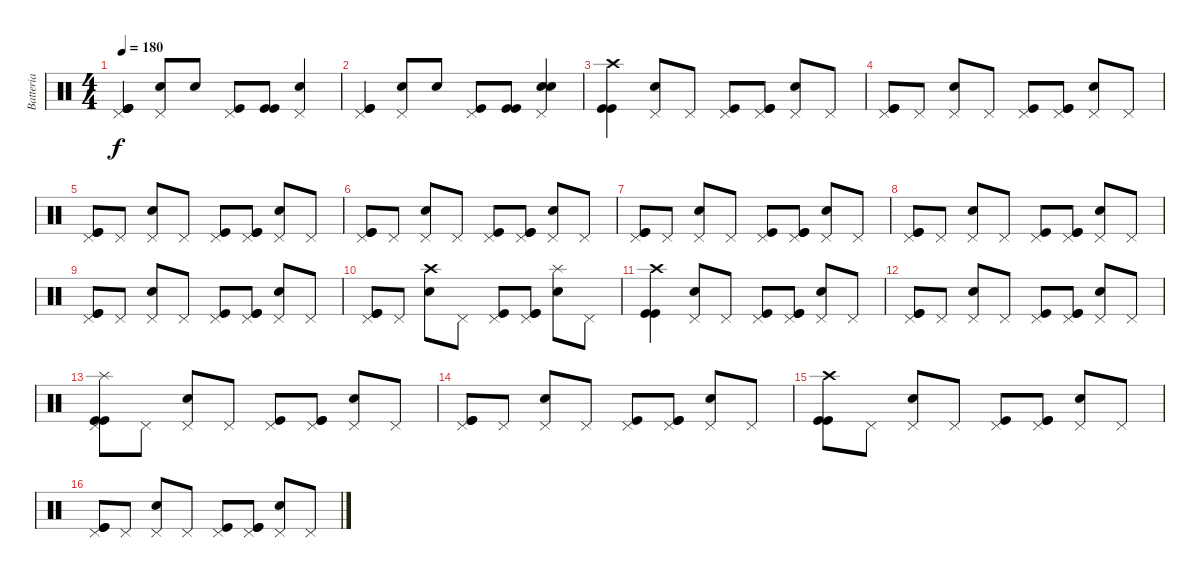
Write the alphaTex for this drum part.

\track ("Batteria" "Batteria") {instrument percussion}
\staff {score}
\articulation defaults
\ts (4 4)
\tempo 180
\clef neutral
\ks c
("Kick (hit)" "Pedal Hi-Hat (hit)" "Kick (hit)" "Kick (hit)").4{dy f} ("Electric Snare (hit)" "Pedal Hi-Hat (hit)").8 "Electric Snare (hit)".8 ("Kick (hit)" "Pedal Hi-Hat (hit)").8 ("Kick (hit)" "Kick (hit)").8 ("Electric Snare (hit)" "Pedal Hi-Hat (hit)").4 |
("Pedal Hi-Hat (hit)" "Kick (hit)" "Kick (hit)").4 ("Electric Snare (hit)" "Pedal Hi-Hat (hit)").8 "Electric Snare (hit)".8 ("Kick (hit)" "Pedal Hi-Hat (hit)").8 ("Kick (hit)" "Kick (hit)").8 ("Pedal Hi-Hat (hit)" "Snare (hit) 2" "Snare (hit) 2").4 |
("Kick (hit)" "Kick (hit)" "Crash high (hit)").4 ("Snare (hit) 2" "Pedal Hi-Hat (hit)").8 "Pedal Hi-Hat (hit)".8 ("Kick (hit)" "Pedal Hi-Hat (hit)").8 ("Kick (hit)" "Kick (hit)" "Pedal Hi-Hat (hit)").8 ("Snare (hit) 2" "Pedal Hi-Hat (hit)").8 "Pedal Hi-Hat (hit)".8 |
("Kick (hit)" "Kick (hit)" "Pedal Hi-Hat (hit)").8 "Pedal Hi-Hat (hit)".8 ("Snare (hit) 2" "Pedal Hi-Hat (hit)").8 "Pedal Hi-Hat (hit)".8 ("Kick (hit)" "Pedal Hi-Hat (hit)").8 ("Kick (hit)" "Kick (hit)" "Pedal Hi-Hat (hit)").8 ("Snare (hit) 2" "Pedal Hi-Hat (hit)").8 "Pedal Hi-Hat (hit)".8 |
("Pedal Hi-Hat (hit)" "Kick (hit)" "Kick (hit)").8 "Pedal Hi-Hat (hit)".8 ("Snare (hit) 2" "Pedal Hi-Hat (hit)").8 "Pedal Hi-Hat (hit)".8 ("Kick (hit)" "Pedal Hi-Hat (hit)").8 ("Kick (hit)" "Kick (hit)" "Pedal Hi-Hat (hit)").8 ("Snare (hit) 2" "Pedal Hi-Hat (hit)").8 "Pedal Hi-Hat (hit)".8 |
("Pedal Hi-Hat (hit)" "Kick (hit)" "Kick (hit)").8 "Pedal Hi-Hat (hit)".8 ("Snare (hit) 2" "Pedal Hi-Hat (hit)").8 "Pedal Hi-Hat (hit)".8 ("Kick (hit)" "Pedal Hi-Hat (hit)").8 ("Kick (hit)" "Kick (hit)" "Pedal Hi-Hat (hit)").8 ("Snare (hit) 2" "Pedal Hi-Hat (hit)").8 "Pedal Hi-Hat (hit)".8 |
("Kick (hit)" "Kick (hit)" "Pedal Hi-Hat (hit)").8 "Pedal Hi-Hat (hit)".8 ("Snare (hit) 2" "Pedal Hi-Hat (hit)").8 "Pedal Hi-Hat (hit)".8 ("Kick (hit)" "Pedal Hi-Hat (hit)").8 ("Kick (hit)" "Kick (hit)" "Pedal Hi-Hat (hit)").8 ("Snare (hit) 2" "Pedal Hi-Hat (hit)").8 "Pedal Hi-Hat (hit)".8 |
("Pedal Hi-Hat (hit)" "Kick (hit)" "Kick (hit)").8 "Pedal Hi-Hat (hit)".8 ("Snare (hit) 2" "Pedal Hi-Hat (hit)").8 "Pedal Hi-Hat (hit)".8 ("Kick (hit)" "Pedal Hi-Hat (hit)").8 ("Kick (hit)" "Kick (hit)" "Pedal Hi-Hat (hit)").8 ("Snare (hit) 2" "Pedal Hi-Hat (hit)").8 "Pedal Hi-Hat (hit)".8 |
("Kick (hit)" "Kick (hit)" "Pedal Hi-Hat (hit)").8 "Pedal Hi-Hat (hit)".8 ("Snare (hit) 2" "Pedal Hi-Hat (hit)").8 "Pedal Hi-Hat (hit)".8 ("Kick (hit)" "Pedal Hi-Hat (hit)").8 ("Kick (hit)" "Kick (hit)" "Pedal Hi-Hat (hit)").8 ("Snare (hit) 2" "Pedal Hi-Hat (hit)").8 "Pedal Hi-Hat (hit)".8 |
("Pedal Hi-Hat (hit)" "Kick (hit)" "Kick (hit)").8 "Pedal Hi-Hat (hit)".8 ("Snare (hit) 2" "Crash high (hit)").8 "Pedal Hi-Hat (hit)".8 ("Kick (hit)" "Pedal Hi-Hat (hit)").8 ("Kick (hit)" "Kick (hit)" "Pedal Hi-Hat (hit)").8 ("Snare (hit) 2" "Splash (hit)").8 "Pedal Hi-Hat (hit)".8 |
("Kick (hit)" "Kick (hit)" "Crash high (hit)").4 ("Snare (hit) 2" "Pedal Hi-Hat (hit)").8 "Pedal Hi-Hat (hit)".8 ("Kick (hit)" "Pedal Hi-Hat (hit)").8 ("Kick (hit)" "Kick (hit)" "Pedal Hi-Hat (hit)").8 ("Snare (hit) 2" "Pedal Hi-Hat (hit)").8 "Pedal Hi-Hat (hit)".8 |
("Kick (hit)" "Kick (hit)" "Pedal Hi-Hat (hit)").8 "Pedal Hi-Hat (hit)".8 ("Snare (hit) 2" "Pedal Hi-Hat (hit)").8 "Pedal Hi-Hat (hit)".8 ("Kick (hit)" "Pedal Hi-Hat (hit)").8 ("Kick (hit)" "Kick (hit)" "Pedal Hi-Hat (hit)").8 ("Snare (hit) 2" "Pedal Hi-Hat (hit)").8 "Pedal Hi-Hat (hit)".8 |
("Pedal Hi-Hat (hit)" "Kick (hit)" "Kick (hit)" "Splash (hit)").8 "Pedal Hi-Hat (hit)".8 ("Snare (hit) 2" "Pedal Hi-Hat (hit)").8 "Pedal Hi-Hat (hit)".8 ("Kick (hit)" "Pedal Hi-Hat (hit)").8 ("Kick (hit)" "Kick (hit)" "Pedal Hi-Hat (hit)").8 ("Snare (hit) 2" "Pedal Hi-Hat (hit)").8 "Pedal Hi-Hat (hit)".8 |
("Pedal Hi-Hat (hit)" "Kick (hit)" "Kick (hit)").8 "Pedal Hi-Hat (hit)".8 ("Snare (hit) 2" "Pedal Hi-Hat (hit)").8 "Pedal Hi-Hat (hit)".8 ("Kick (hit)" "Pedal Hi-Hat (hit)").8 ("Kick (hit)" "Kick (hit)" "Pedal Hi-Hat (hit)").8 ("Snare (hit) 2" "Pedal Hi-Hat (hit)").8 "Pedal Hi-Hat (hit)".8 |
("Kick (hit)" "Kick (hit)" "Crash high (hit)").8 "Pedal Hi-Hat (hit)".8 ("Snare (hit) 2" "Pedal Hi-Hat (hit)").8 "Pedal Hi-Hat (hit)".8 ("Kick (hit)" "Pedal Hi-Hat (hit)").8 ("Kick (hit)" "Kick (hit)" "Pedal Hi-Hat (hit)").8 ("Snare (hit) 2" "Pedal Hi-Hat (hit)").8 "Pedal Hi-Hat (hit)".8 |
("Pedal Hi-Hat (hit)" "Kick (hit)" "Kick (hit)").8 "Pedal Hi-Hat (hit)".8 ("Snare (hit) 2" "Pedal Hi-Hat (hit)").8 "Pedal Hi-Hat (hit)".8 ("Kick (hit)" "Pedal Hi-Hat (hit)").8 ("Kick (hit)" "Kick (hit)" "Pedal Hi-Hat (hit)").8 ("Snare (hit) 2" "Pedal Hi-Hat (hit)").8 "Pedal Hi-Hat (hit)".8
